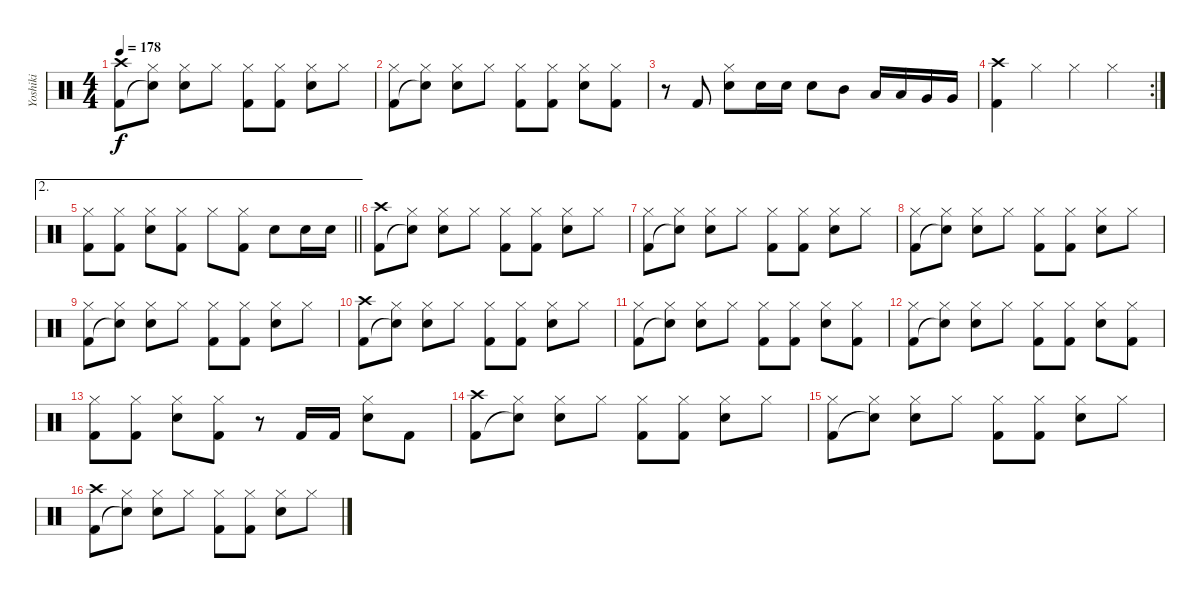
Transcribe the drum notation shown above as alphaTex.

\track ("Yoshiki" "Yoshiki") {instrument percussion}
\staff {score}
\articulation defaults
\ts (4 4)
\tempo 178
\clef neutral
\ks c
("Crash high (hit)" "Kick (hit) 2").8{dy f} ("Hi-Hat (closed)" "Snare (hit)"{t}).8 ("Hi-Hat (closed)" "Snare (hit) 2").8 "Hi-Hat (closed)".8 ("Hi-Hat (closed)" "Kick (hit) 2").8 ("Hi-Hat (closed)" "Kick (hit) 2").8 ("Hi-Hat (closed)" "Snare (hit) 2").8 "Hi-Hat (closed)".8 |
("Hi-Hat (closed)" "Kick (hit) 2").8 ("Hi-Hat (closed)" "Snare (hit)"{t}).8 ("Hi-Hat (closed)" "Snare (hit) 2").8 "Hi-Hat (closed)".8 ("Hi-Hat (closed)" "Kick (hit) 2").8 ("Hi-Hat (closed)" "Kick (hit) 2").8 ("Hi-Hat (closed)" "Snare (hit) 2").8 ("Hi-Hat (closed)" "Kick (hit) 2").8 |
r.8 "Kick (hit) 2".8 ("Hi-Hat (closed)" "Snare (hit) 2").8 "Snare (hit) 2".16 "Snare (hit) 2".16 "Snare (hit) 2".8 "Mid Tom (hit)".8 "Low Tom (hit)".16 "Low Tom (hit)".16 "Very Low Tom (hit)".16 "Very Low Tom (hit)".16 |
\rc 2
("Crash high (hit)" "Kick (hit) 2").4 "Hi-Hat (closed)".4 "Hi-Hat (closed)".4 "Hi-Hat (closed)".4 |
\ae 2
\barLineRight lightlight
("Hi-Hat (closed)" "Kick (hit) 2").8 ("Hi-Hat (closed)" "Kick (hit) 2").8 ("Hi-Hat (closed)" "Snare (hit) 2").8 ("Hi-Hat (closed)" "Kick (hit) 2").8 "Hi-Hat (closed)".8 ("Hi-Hat (closed)" "Kick (hit) 2").8 "Snare (hit) 2".8 "Snare (hit) 2".16 "Snare (hit) 2".16 |
\section ("" "")
("Crash high (hit)" "Kick (hit) 2").8 ("Hi-Hat (closed)" "Snare (hit)"{t}).8 ("Hi-Hat (closed)" "Snare (hit) 2").8 "Hi-Hat (closed)".8 ("Hi-Hat (closed)" "Kick (hit) 2").8 ("Hi-Hat (closed)" "Kick (hit) 2").8 ("Hi-Hat (closed)" "Snare (hit) 2").8 "Hi-Hat (closed)".8 |
("Hi-Hat (closed)" "Kick (hit) 2").8 ("Hi-Hat (closed)" "Snare (hit)"{t}).8 ("Hi-Hat (closed)" "Snare (hit) 2").8 "Hi-Hat (closed)".8 ("Hi-Hat (closed)" "Kick (hit) 2").8 ("Hi-Hat (closed)" "Kick (hit) 2").8 ("Hi-Hat (closed)" "Snare (hit) 2").8 "Hi-Hat (closed)".8 |
("Hi-Hat (closed)" "Kick (hit) 2").8 ("Hi-Hat (closed)" "Snare (hit)"{t}).8 ("Hi-Hat (closed)" "Snare (hit) 2").8 "Hi-Hat (closed)".8 ("Hi-Hat (closed)" "Kick (hit) 2").8 ("Hi-Hat (closed)" "Kick (hit) 2").8 ("Hi-Hat (closed)" "Snare (hit) 2").8 "Hi-Hat (closed)".8 |
("Hi-Hat (closed)" "Kick (hit) 2").8 ("Hi-Hat (closed)" "Snare (hit)"{t}).8 ("Hi-Hat (closed)" "Snare (hit) 2").8 "Hi-Hat (closed)".8 ("Hi-Hat (closed)" "Kick (hit) 2").8 ("Hi-Hat (closed)" "Kick (hit) 2").8 ("Hi-Hat (closed)" "Snare (hit) 2").8 "Hi-Hat (closed)".8 |
("Crash high (hit)" "Kick (hit) 2").8 ("Hi-Hat (closed)" "Snare (hit)"{t}).8 ("Hi-Hat (closed)" "Snare (hit) 2").8 "Hi-Hat (closed)".8 ("Hi-Hat (closed)" "Kick (hit) 2").8 ("Hi-Hat (closed)" "Kick (hit) 2").8 ("Hi-Hat (closed)" "Snare (hit) 2").8 "Hi-Hat (closed)".8 |
("Hi-Hat (closed)" "Kick (hit) 2").8 ("Hi-Hat (closed)" "Snare (hit)"{t}).8 ("Hi-Hat (closed)" "Snare (hit) 2").8 "Hi-Hat (closed)".8 ("Hi-Hat (closed)" "Kick (hit) 2").8 ("Hi-Hat (closed)" "Kick (hit) 2").8 ("Hi-Hat (closed)" "Snare (hit) 2").8 ("Hi-Hat (closed)" "Kick (hit) 2").8 |
("Hi-Hat (closed)" "Kick (hit) 2").8 ("Hi-Hat (closed)" "Snare (hit)"{t}).8 ("Hi-Hat (closed)" "Snare (hit) 2").8 "Hi-Hat (closed)".8 ("Hi-Hat (closed)" "Kick (hit) 2").8 ("Hi-Hat (closed)" "Kick (hit) 2").8 ("Hi-Hat (closed)" "Snare (hit) 2").8 ("Hi-Hat (closed)" "Kick (hit) 2").8 |
("Hi-Hat (closed)" "Kick (hit) 2").8 ("Hi-Hat (closed)" "Kick (hit) 2").8 ("Hi-Hat (closed)" "Snare (hit) 2").8 ("Hi-Hat (closed)" "Kick (hit) 2").8 r.8 "Kick (hit) 2".16 "Kick (hit) 2".16 ("Hi-Hat (closed)" "Snare (hit) 2").8 "Kick (hit) 2".8 |
("Crash high (hit)" "Kick (hit) 2").8 ("Hi-Hat (closed)" "Snare (hit)"{t}).8 ("Hi-Hat (closed)" "Snare (hit) 2").8 "Hi-Hat (closed)".8 ("Hi-Hat (closed)" "Kick (hit) 2").8 ("Hi-Hat (closed)" "Kick (hit) 2").8 ("Hi-Hat (closed)" "Snare (hit) 2").8 "Hi-Hat (closed)".8 |
("Hi-Hat (closed)" "Kick (hit) 2").8 ("Hi-Hat (closed)" "Snare (hit)"{t}).8 ("Hi-Hat (closed)" "Snare (hit) 2").8 "Hi-Hat (closed)".8 ("Hi-Hat (closed)" "Kick (hit) 2").8 ("Hi-Hat (closed)" "Kick (hit) 2").8 ("Hi-Hat (closed)" "Snare (hit) 2").8 "Hi-Hat (closed)".8 |
("Crash high (hit)" "Kick (hit) 2").8 ("Hi-Hat (closed)" "Snare (hit)"{t}).8 ("Hi-Hat (closed)" "Snare (hit) 2").8 "Hi-Hat (closed)".8 ("Hi-Hat (closed)" "Kick (hit) 2").8 ("Hi-Hat (closed)" "Kick (hit) 2").8 ("Hi-Hat (closed)" "Snare (hit) 2").8 "Hi-Hat (closed)".8
